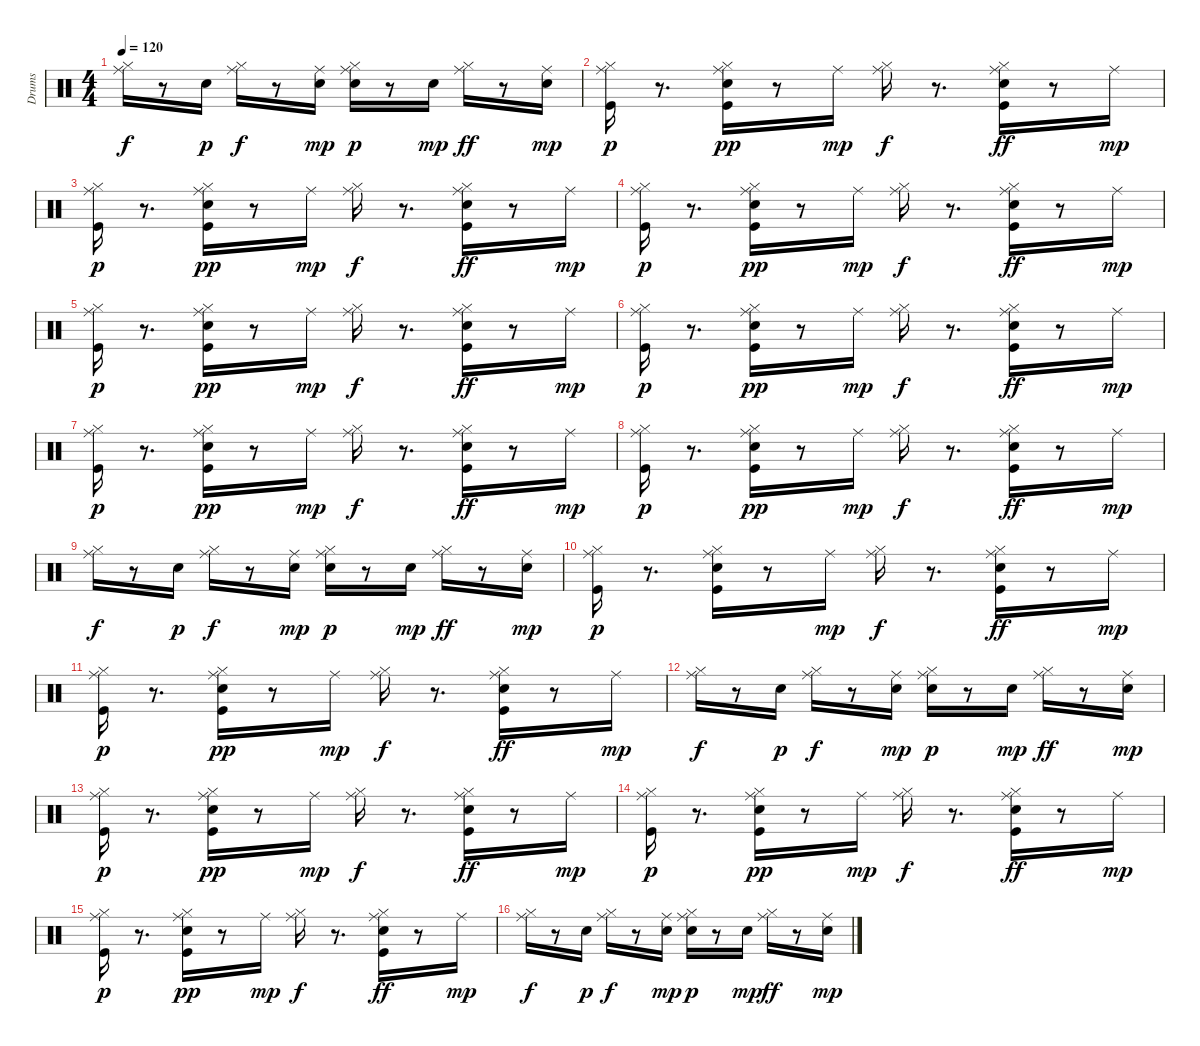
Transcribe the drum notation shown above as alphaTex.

\track ("Drums" "Drums") {instrument percussion}
\staff {score}
\articulation defaults
\ts (4 4)
\tempo 120
\clef neutral
\ks c
("Hi-Hat (closed)" "Ride (middle)").16{dy f} r.8 "Snare (hit) 2".16{dy p} ("Hi-Hat (closed)" "Ride (middle)").16{dy f} r.8 ("Snare (hit) 2" "Ride (middle)").16{dy mp} ("Snare (hit) 2" "Hi-Hat (closed)" "Ride (middle)").16{dy p} r.8 "Snare (hit) 2".16{dy mp} ("Hi-Hat (closed)" "Ride (middle)").16{dy ff} r.8 ("Snare (hit) 2" "Ride (middle)").16{dy mp} |
("Kick (hit)" "Hi-Hat (closed)" "Ride (middle)").16{dy p} r.8{d} ("Kick (hit)" "Snare (hit) 2" "Hi-Hat (closed)" "Ride (middle)").16{dy pp} r.8 "Ride (middle)".16{dy mp} ("Hi-Hat (closed)" "Ride (middle)").16{dy f} r.8{d} ("Kick (hit)" "Snare (hit) 2" "Hi-Hat (closed)" "Ride (middle)").16{dy ff} r.8 "Ride (middle)".16{dy mp} |
("Kick (hit)" "Hi-Hat (closed)" "Ride (middle)").16{dy p} r.8{d} ("Kick (hit)" "Snare (hit) 2" "Hi-Hat (closed)" "Ride (middle)").16{dy pp} r.8 "Ride (middle)".16{dy mp} ("Hi-Hat (closed)" "Ride (middle)").16{dy f} r.8{d} ("Kick (hit)" "Snare (hit) 2" "Hi-Hat (closed)" "Ride (middle)").16{dy ff} r.8 "Ride (middle)".16{dy mp} |
("Kick (hit)" "Hi-Hat (closed)" "Ride (middle)").16{dy p} r.8{d} ("Kick (hit)" "Snare (hit) 2" "Hi-Hat (closed)" "Ride (middle)").16{dy pp} r.8 "Ride (middle)".16{dy mp} ("Hi-Hat (closed)" "Ride (middle)").16{dy f} r.8{d} ("Kick (hit)" "Snare (hit) 2" "Hi-Hat (closed)" "Ride (middle)").16{dy ff} r.8 "Ride (middle)".16{dy mp} |
("Kick (hit)" "Hi-Hat (closed)" "Ride (middle)").16{dy p} r.8{d} ("Kick (hit)" "Snare (hit) 2" "Hi-Hat (closed)" "Ride (middle)").16{dy pp} r.8 "Ride (middle)".16{dy mp} ("Hi-Hat (closed)" "Ride (middle)").16{dy f} r.8{d} ("Kick (hit)" "Snare (hit) 2" "Hi-Hat (closed)" "Ride (middle)").16{dy ff} r.8 "Ride (middle)".16{dy mp} |
("Kick (hit)" "Hi-Hat (closed)" "Ride (middle)").16{dy p} r.8{d} ("Kick (hit)" "Snare (hit) 2" "Hi-Hat (closed)" "Ride (middle)").16{dy pp} r.8 "Ride (middle)".16{dy mp} ("Hi-Hat (closed)" "Ride (middle)").16{dy f} r.8{d} ("Kick (hit)" "Snare (hit) 2" "Hi-Hat (closed)" "Ride (middle)").16{dy ff} r.8 "Ride (middle)".16{dy mp} |
("Kick (hit)" "Hi-Hat (closed)" "Ride (middle)").16{dy p} r.8{d} ("Kick (hit)" "Snare (hit) 2" "Hi-Hat (closed)" "Ride (middle)").16{dy pp} r.8 "Ride (middle)".16{dy mp} ("Hi-Hat (closed)" "Ride (middle)").16{dy f} r.8{d} ("Kick (hit)" "Snare (hit) 2" "Hi-Hat (closed)" "Ride (middle)").16{dy ff} r.8 "Ride (middle)".16{dy mp} |
("Kick (hit)" "Hi-Hat (closed)" "Ride (middle)").16{dy p} r.8{d} ("Kick (hit)" "Snare (hit) 2" "Hi-Hat (closed)" "Ride (middle)").16{dy pp} r.8 "Ride (middle)".16{dy mp} ("Hi-Hat (closed)" "Ride (middle)").16{dy f} r.8{d} ("Kick (hit)" "Snare (hit) 2" "Hi-Hat (closed)" "Ride (middle)").16{dy ff} r.8 "Ride (middle)".16{dy mp} |
("Hi-Hat (closed)" "Ride (middle)").16{dy f} r.8 "Snare (hit) 2".16{dy p} ("Hi-Hat (closed)" "Ride (middle)").16{dy f} r.8 ("Snare (hit) 2" "Ride (middle)").16{dy mp} ("Snare (hit) 2" "Hi-Hat (closed)" "Ride (middle)").16{dy p} r.8 "Snare (hit) 2".16{dy mp} ("Hi-Hat (closed)" "Ride (middle)").16{dy ff} r.8 ("Snare (hit) 2" "Ride (middle)").16{dy mp} |
("Kick (hit)" "Hi-Hat (closed)" "Ride (middle)").16{dy p} r.8{d} ("Kick (hit)" "Snare (hit) 2" "Hi-Hat (closed)" "Ride (middle)").16 r.8 "Ride (middle)".16{dy mp} ("Hi-Hat (closed)" "Ride (middle)").16{dy f} r.8{d} ("Kick (hit)" "Snare (hit) 2" "Hi-Hat (closed)" "Ride (middle)").16{dy ff} r.8 "Ride (middle)".16{dy mp} |
("Kick (hit)" "Hi-Hat (closed)" "Ride (middle)").16{dy p} r.8{d} ("Kick (hit)" "Snare (hit) 2" "Hi-Hat (closed)" "Ride (middle)").16{dy pp} r.8 "Ride (middle)".16{dy mp} ("Hi-Hat (closed)" "Ride (middle)").16{dy f} r.8{d} ("Kick (hit)" "Snare (hit) 2" "Hi-Hat (closed)" "Ride (middle)").16{dy ff} r.8 "Ride (middle)".16{dy mp} |
("Hi-Hat (closed)" "Ride (middle)").16{dy f} r.8 "Snare (hit) 2".16{dy p} ("Hi-Hat (closed)" "Ride (middle)").16{dy f} r.8 ("Snare (hit) 2" "Ride (middle)").16{dy mp} ("Snare (hit) 2" "Hi-Hat (closed)" "Ride (middle)").16{dy p} r.8 "Snare (hit) 2".16{dy mp} ("Hi-Hat (closed)" "Ride (middle)").16{dy ff} r.8 ("Snare (hit) 2" "Ride (middle)").16{dy mp} |
("Kick (hit)" "Hi-Hat (closed)" "Ride (middle)").16{dy p} r.8{d} ("Kick (hit)" "Snare (hit) 2" "Hi-Hat (closed)" "Ride (middle)").16{dy pp} r.8 "Ride (middle)".16{dy mp} ("Hi-Hat (closed)" "Ride (middle)").16{dy f} r.8{d} ("Kick (hit)" "Snare (hit) 2" "Hi-Hat (closed)" "Ride (middle)").16{dy ff} r.8 "Ride (middle)".16{dy mp} |
("Kick (hit)" "Hi-Hat (closed)" "Ride (middle)").16{dy p} r.8{d} ("Kick (hit)" "Snare (hit) 2" "Hi-Hat (closed)" "Ride (middle)").16{dy pp} r.8 "Ride (middle)".16{dy mp} ("Hi-Hat (closed)" "Ride (middle)").16{dy f} r.8{d} ("Kick (hit)" "Snare (hit) 2" "Hi-Hat (closed)" "Ride (middle)").16{dy ff} r.8 "Ride (middle)".16{dy mp} |
("Kick (hit)" "Hi-Hat (closed)" "Ride (middle)").16{dy p} r.8{d} ("Kick (hit)" "Snare (hit) 2" "Hi-Hat (closed)" "Ride (middle)").16{dy pp} r.8 "Ride (middle)".16{dy mp} ("Hi-Hat (closed)" "Ride (middle)").16{dy f} r.8{d} ("Kick (hit)" "Snare (hit) 2" "Hi-Hat (closed)" "Ride (middle)").16{dy ff} r.8 "Ride (middle)".16{dy mp} |
("Hi-Hat (closed)" "Ride (middle)").16{dy f} r.8 "Snare (hit) 2".16{dy p} ("Hi-Hat (closed)" "Ride (middle)").16{dy f} r.8 ("Snare (hit) 2" "Ride (middle)").16{dy mp} ("Snare (hit) 2" "Hi-Hat (closed)" "Ride (middle)").16{dy p} r.8 "Snare (hit) 2".16{dy mp} ("Hi-Hat (closed)" "Ride (middle)").16{dy ff} r.8 ("Snare (hit) 2" "Ride (middle)").16{dy mp}
